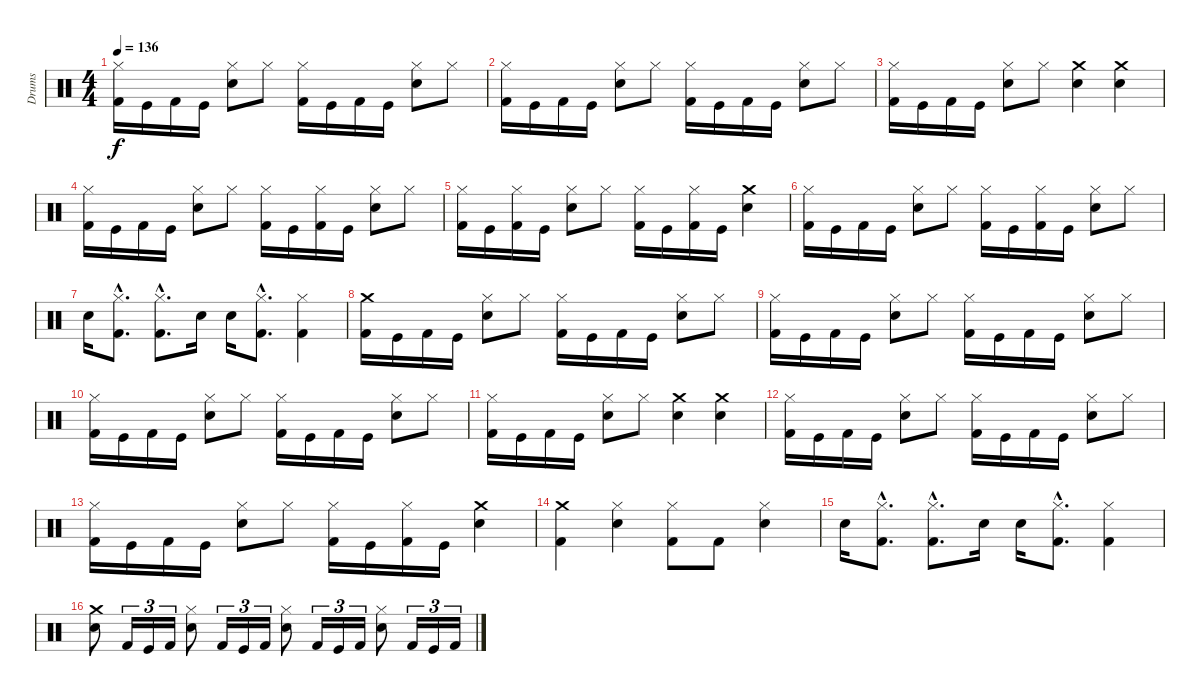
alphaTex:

\track ("Drums" "Drums") {instrument percussion}
\staff {score}
\articulation defaults
\ts (4 4)
\tempo 136
\clef neutral
\ks c
("Hi-Hat (closed)" "Kick (hit) 2").16{dy f} "Kick (hit)".16 "Kick (hit) 2".16 "Kick (hit)".16 ("Hi-Hat (closed)" "Snare (hit) 2").8 "Hi-Hat (closed)".8 ("Hi-Hat (closed)" "Kick (hit) 2").16 "Kick (hit)".16 "Kick (hit) 2".16 "Kick (hit)".16 ("Hi-Hat (closed)" "Snare (hit) 2").8 "Hi-Hat (closed)".8 |
("Hi-Hat (closed)" "Kick (hit) 2").16 "Kick (hit)".16 "Kick (hit) 2".16 "Kick (hit)".16 ("Hi-Hat (closed)" "Snare (hit) 2").8 "Hi-Hat (closed)".8 ("Hi-Hat (closed)" "Kick (hit) 2").16 "Kick (hit)".16 "Kick (hit) 2".16 "Kick (hit)".16 ("Hi-Hat (closed)" "Snare (hit) 2").8 "Hi-Hat (closed)".8 |
("Hi-Hat (closed)" "Kick (hit) 2").16 "Kick (hit)".16 "Kick (hit) 2".16 "Kick (hit)".16 ("Hi-Hat (closed)" "Snare (hit) 2").8 "Hi-Hat (closed)".8 ("Crash medium (hit)" "Snare (hit) 2").4 ("Crash medium (hit)" "Snare (hit) 2").4 |
("Hi-Hat (closed)" "Kick (hit) 2").16 "Kick (hit)".16 "Kick (hit) 2".16 "Kick (hit)".16 ("Hi-Hat (closed)" "Snare (hit) 2").8 "Hi-Hat (closed)".8 ("Hi-Hat (closed)" "Kick (hit) 2").16 "Kick (hit)".16 ("Hi-Hat (closed)" "Kick (hit) 2").16 "Kick (hit)".16 ("Snare (hit) 2" "Hi-Hat (closed)").8 "Hi-Hat (closed)".8 |
("Hi-Hat (closed)" "Kick (hit) 2").16 "Kick (hit)".16 ("Hi-Hat (closed)" "Kick (hit) 2").16 "Kick (hit)".16 ("Snare (hit) 2" "Hi-Hat (closed)").8 "Hi-Hat (closed)".8 ("Hi-Hat (closed)" "Kick (hit) 2").16 "Kick (hit)".16 ("Hi-Hat (closed)" "Kick (hit) 2").16 "Kick (hit)".16 ("Snare (hit) 2" "Crash medium (hit)").4 |
("Hi-Hat (closed)" "Kick (hit) 2").16 "Kick (hit)".16 "Kick (hit) 2".16 "Kick (hit)".16 ("Snare (hit) 2" "Hi-Hat (closed)").8 "Hi-Hat (closed)".8 ("Hi-Hat (closed)" "Kick (hit) 2").16 "Kick (hit)".16 ("Hi-Hat (closed)" "Kick (hit) 2").16 "Kick (hit)".16 ("Snare (hit) 2" "Hi-Hat (closed)").8 "Hi-Hat (closed)".8 |
"Snare (hit) 2".16 ("Kick (hit) 2"{hac} "Hi-Hat (closed)"{hac}).8{d} ("Kick (hit) 2"{hac} "Hi-Hat (closed)"{hac}).8{d} "Snare (hit) 2".16 "Snare (hit) 2".16 ("Kick (hit) 2"{hac} "Hi-Hat (closed)"{hac}).8{d} ("Hi-Hat (closed)" "Kick (hit) 2").4 |
("Crash medium (hit)" "Kick (hit) 2").16 "Kick (hit)".16 "Kick (hit) 2".16 "Kick (hit)".16 ("Hi-Hat (closed)" "Snare (hit) 2").8 "Hi-Hat (closed)".8 ("Hi-Hat (closed)" "Kick (hit) 2").16 "Kick (hit)".16 "Kick (hit) 2".16 "Kick (hit)".16 ("Hi-Hat (closed)" "Snare (hit) 2").8 "Hi-Hat (closed)".8 |
("Hi-Hat (closed)" "Kick (hit) 2").16 "Kick (hit)".16 "Kick (hit) 2".16 "Kick (hit)".16 ("Hi-Hat (closed)" "Snare (hit) 2").8 "Hi-Hat (closed)".8 ("Hi-Hat (closed)" "Kick (hit) 2").16 "Kick (hit)".16 "Kick (hit) 2".16 "Kick (hit)".16 ("Hi-Hat (closed)" "Snare (hit) 2").8 "Hi-Hat (closed)".8 |
("Hi-Hat (closed)" "Kick (hit) 2").16 "Kick (hit)".16 "Kick (hit) 2".16 "Kick (hit)".16 ("Hi-Hat (closed)" "Snare (hit) 2").8 "Hi-Hat (closed)".8 ("Hi-Hat (closed)" "Kick (hit) 2").16 "Kick (hit)".16 "Kick (hit) 2".16 "Kick (hit)".16 ("Hi-Hat (closed)" "Snare (hit) 2").8 "Hi-Hat (closed)".8 |
("Hi-Hat (closed)" "Kick (hit) 2").16 "Kick (hit)".16 "Kick (hit) 2".16 "Kick (hit)".16 ("Hi-Hat (closed)" "Snare (hit) 2").8 "Hi-Hat (closed)".8 ("Crash medium (hit)" "Snare (hit) 2").4 ("Crash medium (hit)" "Snare (hit) 2").4 |
("Hi-Hat (closed)" "Kick (hit) 2").16 "Kick (hit)".16 "Kick (hit) 2".16 "Kick (hit)".16 ("Hi-Hat (closed)" "Snare (hit) 2").8 "Hi-Hat (closed)".8 ("Hi-Hat (closed)" "Kick (hit) 2").16 "Kick (hit)".16 "Kick (hit) 2".16 "Kick (hit)".16 ("Hi-Hat (closed)" "Snare (hit) 2").8 "Hi-Hat (closed)".8 |
("Hi-Hat (closed)" "Kick (hit) 2").16 "Kick (hit)".16 "Kick (hit) 2".16 "Kick (hit)".16 ("Hi-Hat (closed)" "Snare (hit) 2").8 "Hi-Hat (closed)".8 ("Hi-Hat (closed)" "Kick (hit) 2").16 "Kick (hit)".16 ("Hi-Hat (closed)" "Kick (hit) 2").16 "Kick (hit)".16 ("Crash medium (hit)" "Snare (hit) 2").4 |
("Kick (hit) 2" "Crash medium (hit)").4 ("Hi-Hat (closed)" "Snare (hit) 2").4 ("Kick (hit) 2" "Hi-Hat (closed)").8 "Kick (hit) 2".8 ("Snare (hit) 2" "Hi-Hat (closed)").4 |
"Snare (hit) 2".16 ("Kick (hit) 2"{hac} "Hi-Hat (closed)"{hac}).8{d} ("Kick (hit) 2"{hac} "Hi-Hat (closed)"{hac}).8{d} "Snare (hit) 2".16 "Snare (hit) 2".16 ("Kick (hit) 2"{hac} "Hi-Hat (closed)"{hac}).8{d} ("Hi-Hat (closed)" "Kick (hit) 2").4 |
("Snare (hit) 2" "Crash medium (hit)").8 "Kick (hit) 2".16{tu (3 2)} "Kick (hit)".16{tu (3 2)} "Kick (hit) 2".16{tu (3 2)} ("Hi-Hat (closed)" "Snare (hit) 2").8 "Kick (hit) 2".16{tu (3 2)} "Kick (hit)".16{tu (3 2)} "Kick (hit) 2".16{tu (3 2)} ("Snare (hit) 2" "Hi-Hat (closed)").8 "Kick (hit) 2".16{tu (3 2)} "Kick (hit)".16{tu (3 2)} "Kick (hit) 2".16{tu (3 2)} ("Hi-Hat (closed)" "Snare (hit) 2").8 "Kick (hit) 2".16{tu (3 2)} "Kick (hit)".16{tu (3 2)} "Kick (hit) 2".16{tu (3 2)}
